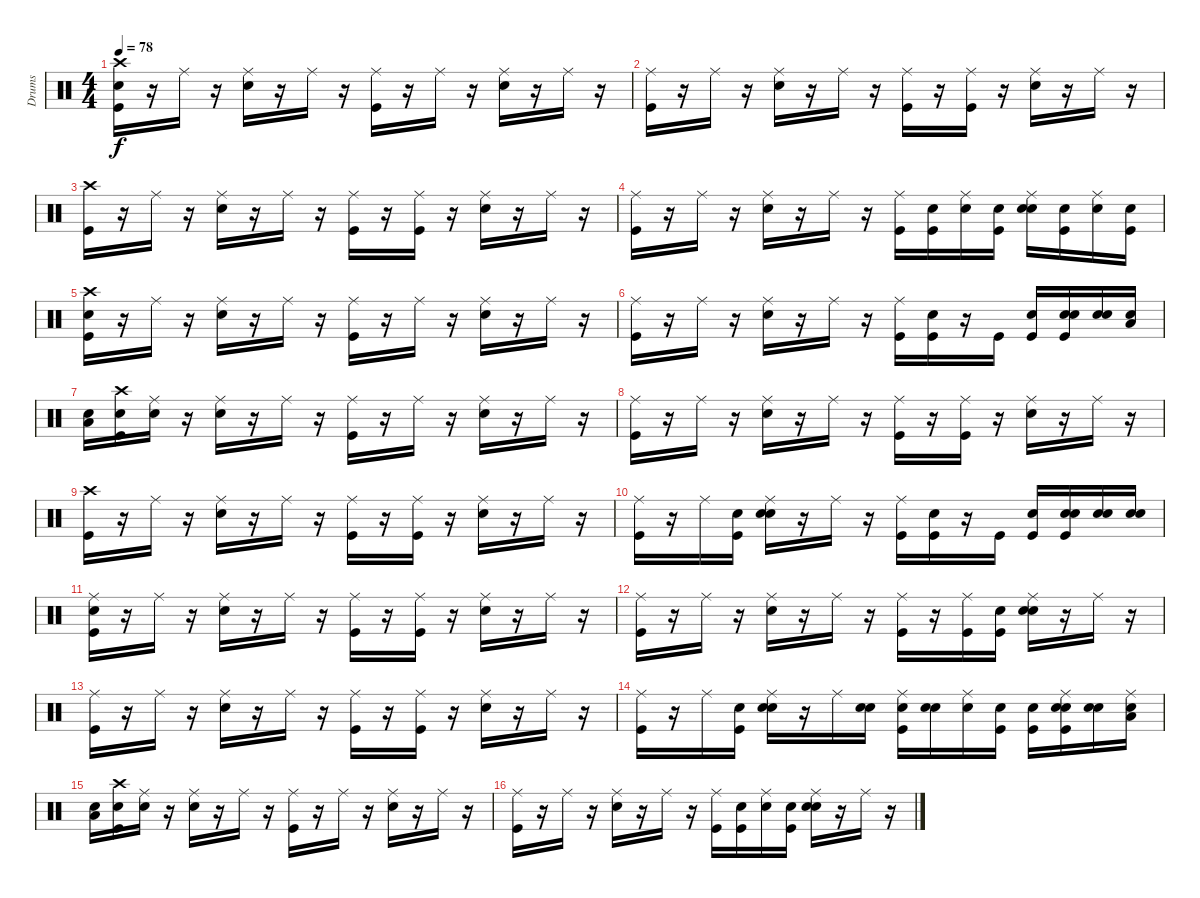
\track ("Drums" "Drums") {instrument percussion}
\staff {score}
\articulation defaults
\ts (4 4)
\tempo 78
\clef neutral
\ks c
("Snare (hit)" "Kick (hit)" "Crash high (hit)").16{dy f} r.16 "Ride (middle)".16 r.16 ("Snare (hit) 2" "Ride (middle)").16 r.16 "Ride (middle)".16 r.16 ("Kick (hit)" "Ride (middle)").16 r.16 "Ride (middle)".16 r.16 ("Snare (hit) 2" "Ride (middle)").16 r.16 "Ride (middle)".16 r.16 |
("Kick (hit)" "Ride (middle)").16 r.16 "Ride (middle)".16 r.16 ("Snare (hit) 2" "Ride (middle)").16 r.16 "Ride (middle)".16 r.16 ("Kick (hit)" "Ride (middle)").16 r.16 ("Kick (hit)" "Ride (middle)").16 r.16 ("Snare (hit) 2" "Ride (middle)").16 r.16 "Ride (middle)".16 r.16 |
("Kick (hit)" "Crash high (hit)").16 r.16 "Ride (middle)".16 r.16 ("Snare (hit) 2" "Ride (middle)").16 r.16 "Ride (middle)".16 r.16 ("Kick (hit)" "Ride (middle)").16 r.16 ("Kick (hit)" "Ride (middle)").16 r.16 ("Snare (hit) 2" "Ride (middle)").16 r.16 "Ride (middle)".16 r.16 |
("Kick (hit)" "Ride (middle)").16 r.16 "Ride (middle)".16 r.16 ("Snare (hit) 2" "Ride (middle)").16 r.16 "Ride (middle)".16 r.16 ("Kick (hit)" "Ride (middle)").16 ("Snare (hit)" "Kick (hit)").16 ("Snare (hit)" "Ride (middle)").16 ("Snare (hit)" "Kick (hit)").16 ("Snare (hit)" "Snare (hit) 2" "Ride (middle)").16 ("Snare (hit)" "Kick (hit)").16 ("Snare (hit)" "Ride (middle)").16 ("Snare (hit)" "Kick (hit)").16 |
("Snare (hit)" "Kick (hit)" "Crash high (hit)").16 r.16 "Ride (middle)".16 r.16 ("Snare (hit) 2" "Ride (middle)").16 r.16 "Ride (middle)".16 r.16 ("Kick (hit)" "Ride (middle)").16 r.16 "Ride (middle)".16 r.16 ("Snare (hit) 2" "Ride (middle)").16 r.16 "Ride (middle)".16 r.16 |
("Kick (hit)" "Ride (middle)").16 r.16 "Ride (middle)".16 r.16 ("Snare (hit) 2" "Ride (middle)").16 r.16 "Ride (middle)".16 r.16 ("Kick (hit)" "Ride (middle)").16 ("Snare (hit)" "Kick (hit)").16 r.16 "Kick (hit)".16 ("Snare (hit)" "Kick (hit)").16 ("Snare (hit)" "Kick (hit)" "Snare (hit) 2").16 ("Snare (hit)" "Snare (hit) 2").16 ("Snare (hit)" "Low Tom (hit)").16 |
("Snare (hit)" "Low Tom (hit)").16 ("Snare (hit)" "Kick (hit)" "Crash high (hit)").16 ("Snare (hit)" "Ride (middle)").16 r.16 ("Snare (hit) 2" "Ride (middle)").16 r.16 "Ride (middle)".16 r.16 ("Kick (hit)" "Ride (middle)").16 r.16 "Ride (middle)".16 r.16 ("Snare (hit) 2" "Ride (middle)").16 r.16 "Ride (middle)".16 r.16 |
("Kick (hit)" "Ride (middle)").16 r.16 "Ride (middle)".16 r.16 ("Snare (hit) 2" "Ride (middle)").16 r.16 "Ride (middle)".16 r.16 ("Kick (hit)" "Ride (middle)").16 r.16 ("Kick (hit)" "Ride (middle)").16 r.16 ("Snare (hit) 2" "Ride (middle)").16 r.16 "Ride (middle)".16 r.16 |
("Kick (hit)" "Crash high (hit)").16 r.16 "Ride (middle)".16 r.16 ("Snare (hit) 2" "Ride (middle)").16 r.16 "Ride (middle)".16 r.16 ("Kick (hit)" "Ride (middle)").16 r.16 ("Kick (hit)" "Ride (middle)").16 r.16 ("Snare (hit) 2" "Ride (middle)").16 r.16 "Ride (middle)".16 r.16 |
("Kick (hit)" "Ride (middle)").16 r.16 "Ride (middle)".16 ("Snare (hit)" "Kick (hit)").16 ("Snare (hit)" "Snare (hit) 2" "Ride (middle)").16 r.16 "Ride (middle)".16 r.16 ("Kick (hit)" "Ride (middle)").16 ("Snare (hit)" "Kick (hit)").16 r.16 "Kick (hit)".16 ("Snare (hit)" "Kick (hit)").16 ("Snare (hit)" "Kick (hit)" "Snare (hit) 2").16 ("Snare (hit)" "Snare (hit) 2").16 ("Snare (hit)" "Snare (hit) 2").16 |
("Snare (hit)" "Kick (hit)" "Ride (middle)").16 r.16 "Ride (middle)".16 r.16 ("Snare (hit) 2" "Ride (middle)").16 r.16 "Ride (middle)".16 r.16 ("Kick (hit)" "Ride (middle)").16 r.16 ("Kick (hit)" "Ride (middle)").16 r.16 ("Snare (hit) 2" "Ride (middle)").16 r.16 "Ride (middle)".16 r.16 |
("Kick (hit)" "Ride (middle)").16 r.16 "Ride (middle)".16 r.16 ("Snare (hit) 2" "Ride (middle)").16 r.16 "Ride (middle)".16 r.16 ("Kick (hit)" "Ride (middle)").16 r.16 ("Kick (hit)" "Ride (middle)").16 ("Snare (hit)" "Kick (hit)").16 ("Snare (hit)" "Snare (hit) 2" "Ride (middle)").16 r.16 "Ride (middle)".16 r.16 |
("Kick (hit)" "Ride (middle)").16 r.16 "Ride (middle)".16 r.16 ("Snare (hit) 2" "Ride (middle)").16 r.16 "Ride (middle)".16 r.16 ("Kick (hit)" "Ride (middle)").16 r.16 ("Kick (hit)" "Ride (middle)").16 r.16 ("Snare (hit) 2" "Ride (middle)").16 r.16 "Ride (middle)".16 r.16 |
("Kick (hit)" "Ride (middle)").16 r.16 "Ride (middle)".16 ("Snare (hit)" "Kick (hit)").16 ("Snare (hit)" "Snare (hit) 2" "Ride (middle)").16 r.16 "Ride (middle)".16 ("Snare (hit)" "Snare (hit) 2").16 ("Snare (hit)" "Kick (hit)" "Ride (middle)").16 ("Snare (hit)" "Snare (hit) 2").16 ("Snare (hit)" "Ride (middle)").16 ("Snare (hit)" "Kick (hit)").16 ("Snare (hit)" "Kick (hit)").16 ("Snare (hit)" "Snare (hit) 2" "Kick (hit)" "Ride (middle)").16 ("Snare (hit)" "Snare (hit) 2").16 ("Snare (hit)" "Low Tom (hit)" "Ride (middle)").16 |
("Snare (hit)" "Low Tom (hit)").16 ("Snare (hit)" "Kick (hit)" "Crash high (hit)").16 ("Snare (hit)" "Ride (middle)").16 r.16 ("Snare (hit) 2" "Ride (middle)").16 r.16 "Ride (middle)".16 r.16 ("Kick (hit)" "Ride (middle)").16 r.16 "Ride (middle)".16 r.16 ("Snare (hit) 2" "Ride (middle)").16 r.16 "Ride (middle)".16 r.16 |
("Kick (hit)" "Ride (middle)").16 r.16 "Ride (middle)".16 r.16 ("Snare (hit) 2" "Ride (middle)").16 r.16 "Ride (middle)".16 r.16 ("Kick (hit)" "Ride (middle)").16 ("Snare (hit)" "Kick (hit)").16 ("Snare (hit)" "Ride (middle)").16 ("Snare (hit)" "Kick (hit)").16 ("Snare (hit)" "Snare (hit) 2" "Ride (middle)").16 r.16 "Ride (middle)".16 r.16
